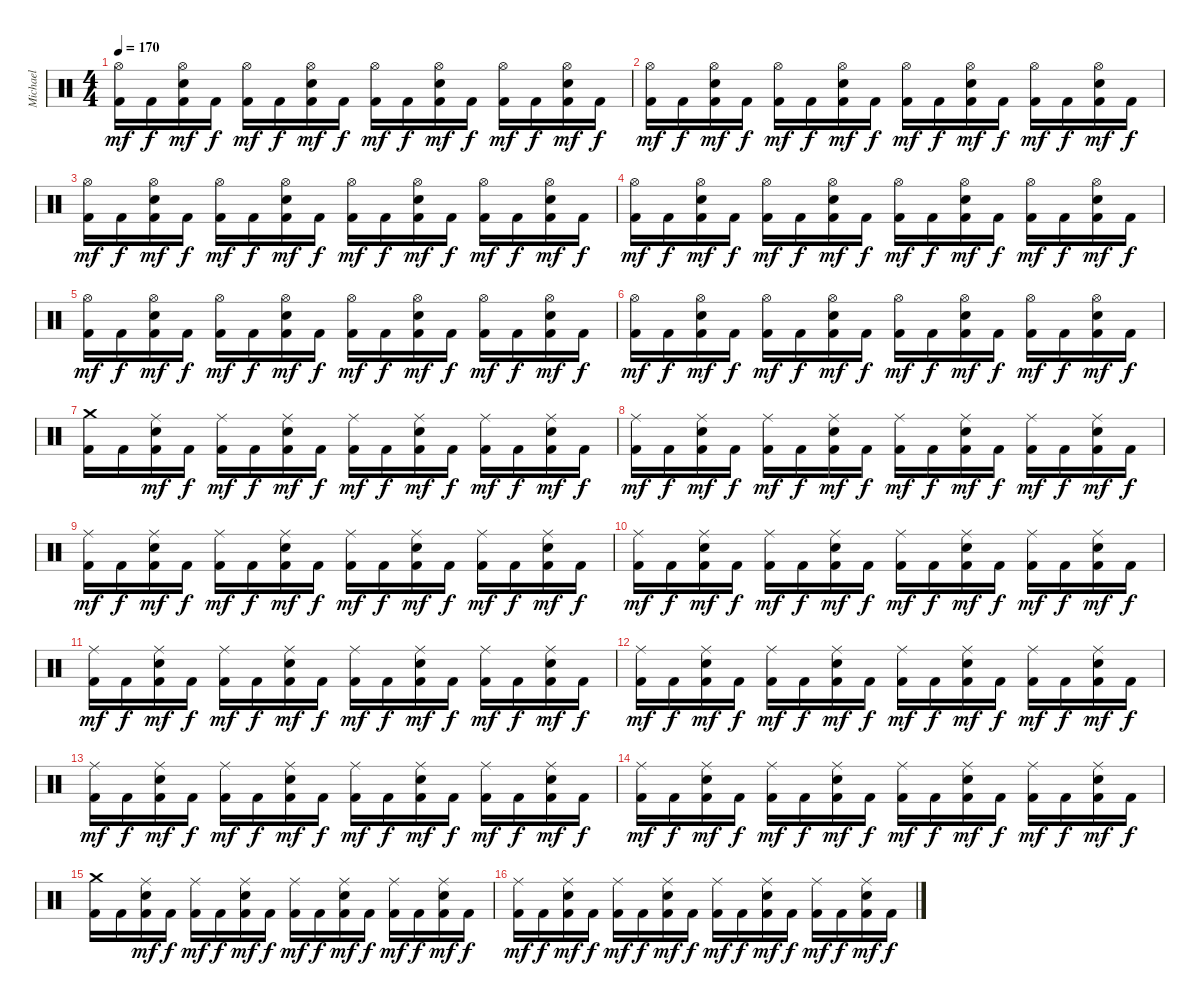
\track ("Michael" "Michael") {instrument percussion}
\staff {score}
\articulation defaults
\ts (4 4)
\tempo 170
\clef neutral
\ks c
("Hi-Hat (open)" "Kick (hit) 2").16{dy mf} "Kick (hit) 2".16{dy f} ("Hi-Hat (open)" "Electric Snare (hit)" "Kick (hit) 2").16{dy mf} "Kick (hit) 2".16{dy f} ("Hi-Hat (open)" "Kick (hit) 2").16{dy mf} "Kick (hit) 2".16{dy f} ("Hi-Hat (open)" "Electric Snare (hit)" "Kick (hit) 2").16{dy mf} "Kick (hit) 2".16{dy f} ("Hi-Hat (open)" "Kick (hit) 2").16{dy mf} "Kick (hit) 2".16{dy f} ("Hi-Hat (open)" "Electric Snare (hit)" "Kick (hit) 2").16{dy mf} "Kick (hit) 2".16{dy f} ("Hi-Hat (open)" "Kick (hit) 2").16{dy mf} "Kick (hit) 2".16{dy f} ("Hi-Hat (open)" "Electric Snare (hit)" "Kick (hit) 2").16{dy mf} "Kick (hit) 2".16{dy f} |
("Hi-Hat (open)" "Kick (hit) 2").16{dy mf} "Kick (hit) 2".16{dy f} ("Hi-Hat (open)" "Electric Snare (hit)" "Kick (hit) 2").16{dy mf} "Kick (hit) 2".16{dy f} ("Hi-Hat (open)" "Kick (hit) 2").16{dy mf} "Kick (hit) 2".16{dy f} ("Hi-Hat (open)" "Electric Snare (hit)" "Kick (hit) 2").16{dy mf} "Kick (hit) 2".16{dy f} ("Hi-Hat (open)" "Kick (hit) 2").16{dy mf} "Kick (hit) 2".16{dy f} ("Hi-Hat (open)" "Electric Snare (hit)" "Kick (hit) 2").16{dy mf} "Kick (hit) 2".16{dy f} ("Hi-Hat (open)" "Kick (hit) 2").16{dy mf} "Kick (hit) 2".16{dy f} ("Hi-Hat (open)" "Electric Snare (hit)" "Kick (hit) 2").16{dy mf} "Kick (hit) 2".16{dy f} |
("Hi-Hat (open)" "Kick (hit) 2").16{dy mf} "Kick (hit) 2".16{dy f} ("Hi-Hat (open)" "Electric Snare (hit)" "Kick (hit) 2").16{dy mf} "Kick (hit) 2".16{dy f} ("Hi-Hat (open)" "Kick (hit) 2").16{dy mf} "Kick (hit) 2".16{dy f} ("Hi-Hat (open)" "Electric Snare (hit)" "Kick (hit) 2").16{dy mf} "Kick (hit) 2".16{dy f} ("Hi-Hat (open)" "Kick (hit) 2").16{dy mf} "Kick (hit) 2".16{dy f} ("Hi-Hat (open)" "Electric Snare (hit)" "Kick (hit) 2").16{dy mf} "Kick (hit) 2".16{dy f} ("Hi-Hat (open)" "Kick (hit) 2").16{dy mf} "Kick (hit) 2".16{dy f} ("Hi-Hat (open)" "Electric Snare (hit)" "Kick (hit) 2").16{dy mf} "Kick (hit) 2".16{dy f} |
("Hi-Hat (open)" "Kick (hit) 2").16{dy mf} "Kick (hit) 2".16{dy f} ("Hi-Hat (open)" "Electric Snare (hit)" "Kick (hit) 2").16{dy mf} "Kick (hit) 2".16{dy f} ("Hi-Hat (open)" "Kick (hit) 2").16{dy mf} "Kick (hit) 2".16{dy f} ("Hi-Hat (open)" "Electric Snare (hit)" "Kick (hit) 2").16{dy mf} "Kick (hit) 2".16{dy f} ("Hi-Hat (open)" "Kick (hit) 2").16{dy mf} "Kick (hit) 2".16{dy f} ("Hi-Hat (open)" "Electric Snare (hit)" "Kick (hit) 2").16{dy mf} "Kick (hit) 2".16{dy f} ("Hi-Hat (open)" "Kick (hit) 2").16{dy mf} "Kick (hit) 2".16{dy f} ("Hi-Hat (open)" "Electric Snare (hit)" "Kick (hit) 2").16{dy mf} "Kick (hit) 2".16{dy f} |
("Hi-Hat (open)" "Kick (hit) 2").16{dy mf} "Kick (hit) 2".16{dy f} ("Hi-Hat (open)" "Electric Snare (hit)" "Kick (hit) 2").16{dy mf} "Kick (hit) 2".16{dy f} ("Hi-Hat (open)" "Kick (hit) 2").16{dy mf} "Kick (hit) 2".16{dy f} ("Hi-Hat (open)" "Electric Snare (hit)" "Kick (hit) 2").16{dy mf} "Kick (hit) 2".16{dy f} ("Hi-Hat (open)" "Kick (hit) 2").16{dy mf} "Kick (hit) 2".16{dy f} ("Hi-Hat (open)" "Electric Snare (hit)" "Kick (hit) 2").16{dy mf} "Kick (hit) 2".16{dy f} ("Hi-Hat (open)" "Kick (hit) 2").16{dy mf} "Kick (hit) 2".16{dy f} ("Hi-Hat (open)" "Electric Snare (hit)" "Kick (hit) 2").16{dy mf} "Kick (hit) 2".16{dy f} |
("Hi-Hat (open)" "Kick (hit) 2").16{dy mf} "Kick (hit) 2".16{dy f} ("Hi-Hat (open)" "Electric Snare (hit)" "Kick (hit) 2").16{dy mf} "Kick (hit) 2".16{dy f} ("Hi-Hat (open)" "Kick (hit) 2").16{dy mf} "Kick (hit) 2".16{dy f} ("Hi-Hat (open)" "Electric Snare (hit)" "Kick (hit) 2").16{dy mf} "Kick (hit) 2".16{dy f} ("Hi-Hat (open)" "Kick (hit) 2").16{dy mf} "Kick (hit) 2".16{dy f} ("Hi-Hat (open)" "Electric Snare (hit)" "Kick (hit) 2").16{dy mf} "Kick (hit) 2".16{dy f} ("Hi-Hat (open)" "Kick (hit) 2").16{dy mf} "Kick (hit) 2".16{dy f} ("Hi-Hat (open)" "Electric Snare (hit)" "Kick (hit) 2").16{dy mf} "Kick (hit) 2".16{dy f} |
("Crash medium (hit)" "Kick (hit) 2").16 "Kick (hit) 2".16 ("Ride (middle)" "Electric Snare (hit)" "Kick (hit) 2").16{dy mf} "Kick (hit) 2".16{dy f} ("Ride (middle)" "Kick (hit) 2").16{dy mf} "Kick (hit) 2".16{dy f} ("Ride (middle)" "Electric Snare (hit)" "Kick (hit) 2").16{dy mf} "Kick (hit) 2".16{dy f} ("Ride (middle)" "Kick (hit) 2").16{dy mf} "Kick (hit) 2".16{dy f} ("Ride (middle)" "Electric Snare (hit)" "Kick (hit) 2").16{dy mf} "Kick (hit) 2".16{dy f} ("Ride (middle)" "Kick (hit) 2").16{dy mf} "Kick (hit) 2".16{dy f} ("Ride (middle)" "Electric Snare (hit)" "Kick (hit) 2").16{dy mf} "Kick (hit) 2".16{dy f} |
("Ride (middle)" "Kick (hit) 2").16{dy mf} "Kick (hit) 2".16{dy f} ("Ride (middle)" "Electric Snare (hit)" "Kick (hit) 2").16{dy mf} "Kick (hit) 2".16{dy f} ("Ride (middle)" "Kick (hit) 2").16{dy mf} "Kick (hit) 2".16{dy f} ("Ride (middle)" "Electric Snare (hit)" "Kick (hit) 2").16{dy mf} "Kick (hit) 2".16{dy f} ("Ride (middle)" "Kick (hit) 2").16{dy mf} "Kick (hit) 2".16{dy f} ("Ride (middle)" "Electric Snare (hit)" "Kick (hit) 2").16{dy mf} "Kick (hit) 2".16{dy f} ("Ride (middle)" "Kick (hit) 2").16{dy mf} "Kick (hit) 2".16{dy f} ("Ride (middle)" "Electric Snare (hit)" "Kick (hit) 2").16{dy mf} "Kick (hit) 2".16{dy f} |
("Ride (middle)" "Kick (hit) 2").16{dy mf} "Kick (hit) 2".16{dy f} ("Ride (middle)" "Electric Snare (hit)" "Kick (hit) 2").16{dy mf} "Kick (hit) 2".16{dy f} ("Ride (middle)" "Kick (hit) 2").16{dy mf} "Kick (hit) 2".16{dy f} ("Ride (middle)" "Electric Snare (hit)" "Kick (hit) 2").16{dy mf} "Kick (hit) 2".16{dy f} ("Ride (middle)" "Kick (hit) 2").16{dy mf} "Kick (hit) 2".16{dy f} ("Ride (middle)" "Electric Snare (hit)" "Kick (hit) 2").16{dy mf} "Kick (hit) 2".16{dy f} ("Ride (middle)" "Kick (hit) 2").16{dy mf} "Kick (hit) 2".16{dy f} ("Ride (middle)" "Electric Snare (hit)" "Kick (hit) 2").16{dy mf} "Kick (hit) 2".16{dy f} |
("Ride (middle)" "Kick (hit) 2").16{dy mf} "Kick (hit) 2".16{dy f} ("Ride (middle)" "Electric Snare (hit)" "Kick (hit) 2").16{dy mf} "Kick (hit) 2".16{dy f} ("Ride (middle)" "Kick (hit) 2").16{dy mf} "Kick (hit) 2".16{dy f} ("Ride (middle)" "Electric Snare (hit)" "Kick (hit) 2").16{dy mf} "Kick (hit) 2".16{dy f} ("Ride (middle)" "Kick (hit) 2").16{dy mf} "Kick (hit) 2".16{dy f} ("Ride (middle)" "Electric Snare (hit)" "Kick (hit) 2").16{dy mf} "Kick (hit) 2".16{dy f} ("Ride (middle)" "Kick (hit) 2").16{dy mf} "Kick (hit) 2".16{dy f} ("Ride (middle)" "Electric Snare (hit)" "Kick (hit) 2").16{dy mf} "Kick (hit) 2".16{dy f} |
("Ride (middle)" "Kick (hit) 2").16{dy mf} "Kick (hit) 2".16{dy f} ("Ride (middle)" "Electric Snare (hit)" "Kick (hit) 2").16{dy mf} "Kick (hit) 2".16{dy f} ("Ride (middle)" "Kick (hit) 2").16{dy mf} "Kick (hit) 2".16{dy f} ("Ride (middle)" "Electric Snare (hit)" "Kick (hit) 2").16{dy mf} "Kick (hit) 2".16{dy f} ("Ride (middle)" "Kick (hit) 2").16{dy mf} "Kick (hit) 2".16{dy f} ("Ride (middle)" "Electric Snare (hit)" "Kick (hit) 2").16{dy mf} "Kick (hit) 2".16{dy f} ("Ride (middle)" "Kick (hit) 2").16{dy mf} "Kick (hit) 2".16{dy f} ("Ride (middle)" "Electric Snare (hit)" "Kick (hit) 2").16{dy mf} "Kick (hit) 2".16{dy f} |
("Ride (middle)" "Kick (hit) 2").16{dy mf} "Kick (hit) 2".16{dy f} ("Ride (middle)" "Electric Snare (hit)" "Kick (hit) 2").16{dy mf} "Kick (hit) 2".16{dy f} ("Ride (middle)" "Kick (hit) 2").16{dy mf} "Kick (hit) 2".16{dy f} ("Ride (middle)" "Electric Snare (hit)" "Kick (hit) 2").16{dy mf} "Kick (hit) 2".16{dy f} ("Ride (middle)" "Kick (hit) 2").16{dy mf} "Kick (hit) 2".16{dy f} ("Ride (middle)" "Electric Snare (hit)" "Kick (hit) 2").16{dy mf} "Kick (hit) 2".16{dy f} ("Ride (middle)" "Kick (hit) 2").16{dy mf} "Kick (hit) 2".16{dy f} ("Ride (middle)" "Electric Snare (hit)" "Kick (hit) 2").16{dy mf} "Kick (hit) 2".16{dy f} |
("Ride (middle)" "Kick (hit) 2").16{dy mf} "Kick (hit) 2".16{dy f} ("Ride (middle)" "Electric Snare (hit)" "Kick (hit) 2").16{dy mf} "Kick (hit) 2".16{dy f} ("Ride (middle)" "Kick (hit) 2").16{dy mf} "Kick (hit) 2".16{dy f} ("Ride (middle)" "Electric Snare (hit)" "Kick (hit) 2").16{dy mf} "Kick (hit) 2".16{dy f} ("Ride (middle)" "Kick (hit) 2").16{dy mf} "Kick (hit) 2".16{dy f} ("Ride (middle)" "Electric Snare (hit)" "Kick (hit) 2").16{dy mf} "Kick (hit) 2".16{dy f} ("Ride (middle)" "Kick (hit) 2").16{dy mf} "Kick (hit) 2".16{dy f} ("Ride (middle)" "Electric Snare (hit)" "Kick (hit) 2").16{dy mf} "Kick (hit) 2".16{dy f} |
("Ride (middle)" "Kick (hit) 2").16{dy mf} "Kick (hit) 2".16{dy f} ("Ride (middle)" "Electric Snare (hit)" "Kick (hit) 2").16{dy mf} "Kick (hit) 2".16{dy f} ("Ride (middle)" "Kick (hit) 2").16{dy mf} "Kick (hit) 2".16{dy f} ("Ride (middle)" "Electric Snare (hit)" "Kick (hit) 2").16{dy mf} "Kick (hit) 2".16{dy f} ("Ride (middle)" "Kick (hit) 2").16{dy mf} "Kick (hit) 2".16{dy f} ("Ride (middle)" "Electric Snare (hit)" "Kick (hit) 2").16{dy mf} "Kick (hit) 2".16{dy f} ("Ride (middle)" "Kick (hit) 2").16{dy mf} "Kick (hit) 2".16{dy f} ("Ride (middle)" "Electric Snare (hit)" "Kick (hit) 2").16{dy mf} "Kick (hit) 2".16{dy f} |
("Crash medium (hit)" "Kick (hit) 2").16 "Kick (hit) 2".16 ("Ride (middle)" "Electric Snare (hit)" "Kick (hit) 2").16{dy mf} "Kick (hit) 2".16{dy f} ("Ride (middle)" "Kick (hit) 2").16{dy mf} "Kick (hit) 2".16{dy f} ("Ride (middle)" "Electric Snare (hit)" "Kick (hit) 2").16{dy mf} "Kick (hit) 2".16{dy f} ("Ride (middle)" "Kick (hit) 2").16{dy mf} "Kick (hit) 2".16{dy f} ("Ride (middle)" "Electric Snare (hit)" "Kick (hit) 2").16{dy mf} "Kick (hit) 2".16{dy f} ("Ride (middle)" "Kick (hit) 2").16{dy mf} "Kick (hit) 2".16{dy f} ("Ride (middle)" "Electric Snare (hit)" "Kick (hit) 2").16{dy mf} "Kick (hit) 2".16{dy f} |
("Ride (middle)" "Kick (hit) 2").16{dy mf} "Kick (hit) 2".16{dy f} ("Ride (middle)" "Electric Snare (hit)" "Kick (hit) 2").16{dy mf} "Kick (hit) 2".16{dy f} ("Ride (middle)" "Kick (hit) 2").16{dy mf} "Kick (hit) 2".16{dy f} ("Ride (middle)" "Electric Snare (hit)" "Kick (hit) 2").16{dy mf} "Kick (hit) 2".16{dy f} ("Ride (middle)" "Kick (hit) 2").16{dy mf} "Kick (hit) 2".16{dy f} ("Ride (middle)" "Electric Snare (hit)" "Kick (hit) 2").16{dy mf} "Kick (hit) 2".16{dy f} ("Ride (middle)" "Kick (hit) 2").16{dy mf} "Kick (hit) 2".16{dy f} ("Ride (middle)" "Electric Snare (hit)" "Kick (hit) 2").16{dy mf} "Kick (hit) 2".16{dy f}
